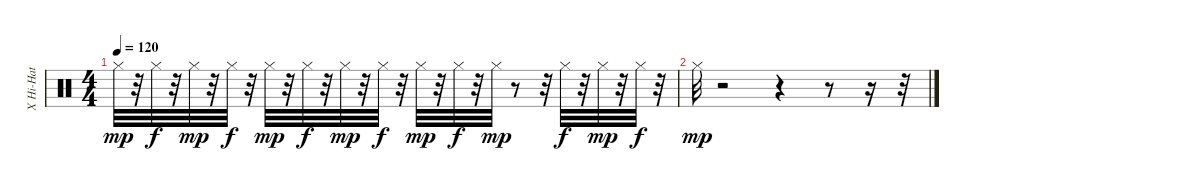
\track ("X Hi-Hat            " "X Hi-Hat  ") {instrument percussion}
\staff {score}
\articulation defaults
\ts (4 4)
\tempo 120
\clef neutral
\ks c "Hi-Hat (closed)".32{dy mp}
r.32 "Hi-Hat (closed)".32{dy f} r.32 "Hi-Hat (closed)".32{dy mp} r.32 "Hi-Hat (closed)".32{dy f} r.32 "Hi-Hat (closed)".32{dy mp} r.32 "Hi-Hat (closed)".32{dy f} r.32 "Hi-Hat (closed)".32{dy mp} r.32 "Hi-Hat (closed)".32{dy f} r.32 "Hi-Hat (closed)".32{dy mp} r.32 "Hi-Hat (closed)".32{dy f} r.32 "Hi-Hat (closed)".32{dy mp} r.8 r.32 "Hi-Hat (closed)".32{dy f} r.32 "Hi-Hat (closed)".32{dy mp} r.32 "Hi-Hat (closed)".32{dy f} r.32 |
"Hi-Hat (closed)".32{dy mp} r.2 r.4 r.8 r.16 r.32
